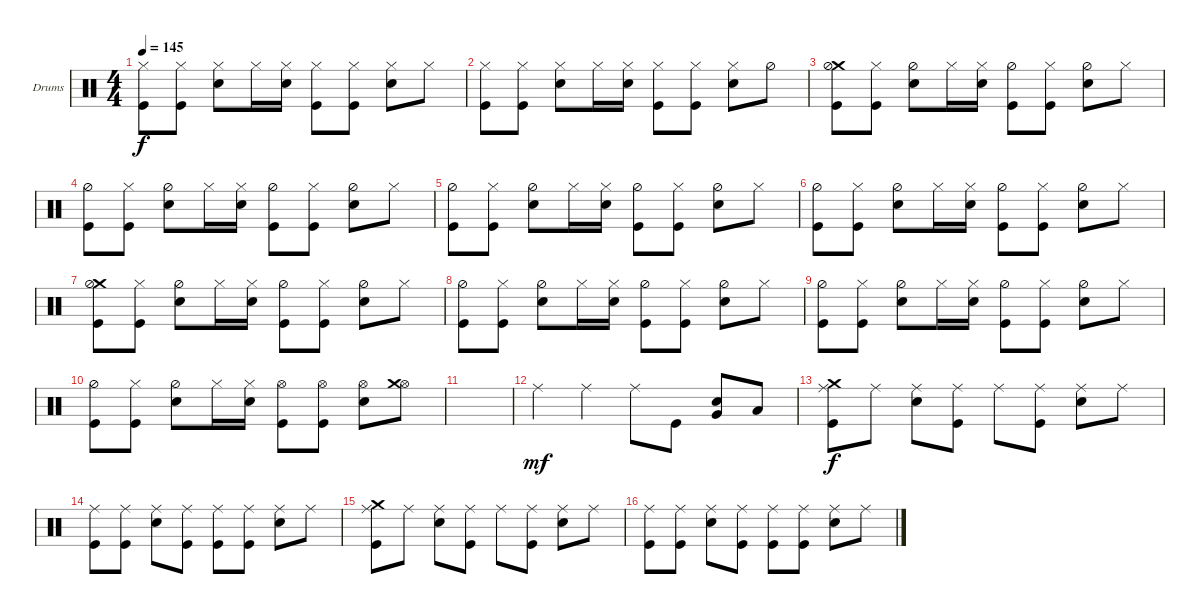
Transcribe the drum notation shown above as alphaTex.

\defaultSystemsLayout 4
\bracketExtendMode groupsimilarinstruments
\firstSystemTrackNameOrientation horizontal
\otherSystemsTrackNameOrientation horizontal
\track ("Nikola" "Drums") {instrument percussion}
\staff {score}
\articulation defaults
\ts (4 4)
\tempo 145
\clef neutral
\ks c
("Kick (hit)" "Hi-Hat (closed)").8{dy f} ("Kick (hit)" "Hi-Hat (closed)").8 ("Snare (hit) 2" "Hi-Hat (closed)").8 "Hi-Hat (closed)".16 ("Snare (hit) 2" "Hi-Hat (closed)").16 ("Kick (hit)" "Hi-Hat (closed)").8 ("Kick (hit)" "Hi-Hat (closed)").8 ("Snare (hit) 2" "Hi-Hat (closed)").8 "Hi-Hat (closed)".8 |
("Kick (hit)" "Hi-Hat (closed)").8 ("Kick (hit)" "Hi-Hat (closed)").8 ("Snare (hit) 2" "Hi-Hat (closed)").8 "Hi-Hat (closed)".16 ("Snare (hit) 2" "Hi-Hat (closed)").16 ("Kick (hit)" "Hi-Hat (closed)").8 ("Kick (hit)" "Hi-Hat (closed)").8 ("Snare (hit) 2" "Hi-Hat (closed)").8 "Hi-Hat (half)".8 |
("Kick (hit)" "Crash medium (hit)" "Hi-Hat (half)").8 ("Kick (hit)" "Hi-Hat (closed)").8 ("Snare (hit) 2" "Hi-Hat (half)").8 "Hi-Hat (closed)".16 ("Snare (hit) 2" "Hi-Hat (closed)").16 ("Kick (hit)" "Hi-Hat (half)").8 ("Kick (hit)" "Hi-Hat (closed)").8 ("Snare (hit) 2" "Hi-Hat (half)").8 "Hi-Hat (closed)".8 |
("Kick (hit)" "Hi-Hat (half)").8 ("Kick (hit)" "Hi-Hat (closed)").8 ("Snare (hit) 2" "Hi-Hat (half)").8 "Hi-Hat (closed)".16 ("Snare (hit) 2" "Hi-Hat (closed)").16 ("Kick (hit)" "Hi-Hat (half)").8 ("Kick (hit)" "Hi-Hat (closed)").8 ("Snare (hit) 2" "Hi-Hat (half)").8 "Hi-Hat (closed)".8 |
("Kick (hit)" "Hi-Hat (half)").8 ("Kick (hit)" "Hi-Hat (closed)").8 ("Snare (hit) 2" "Hi-Hat (half)").8 "Hi-Hat (closed)".16 ("Snare (hit) 2" "Hi-Hat (closed)").16 ("Kick (hit)" "Hi-Hat (half)").8 ("Kick (hit)" "Hi-Hat (closed)").8 ("Snare (hit) 2" "Hi-Hat (half)").8 "Hi-Hat (closed)".8 |
("Kick (hit)" "Hi-Hat (half)").8 ("Kick (hit)" "Hi-Hat (closed)").8 ("Snare (hit) 2" "Hi-Hat (half)").8 "Hi-Hat (closed)".16 ("Snare (hit) 2" "Hi-Hat (closed)").16 ("Kick (hit)" "Hi-Hat (half)").8 ("Kick (hit)" "Hi-Hat (closed)").8 ("Snare (hit) 2" "Hi-Hat (half)").8 "Hi-Hat (closed)".8 |
("Kick (hit)" "Crash medium (hit)" "Hi-Hat (half)").8 ("Kick (hit)" "Hi-Hat (closed)").8 ("Snare (hit) 2" "Hi-Hat (half)").8 "Hi-Hat (closed)".16 ("Snare (hit) 2" "Hi-Hat (closed)").16 ("Kick (hit)" "Hi-Hat (half)").8 ("Kick (hit)" "Hi-Hat (closed)").8 ("Snare (hit) 2" "Hi-Hat (half)").8 "Hi-Hat (closed)".8 |
("Kick (hit)" "Hi-Hat (half)").8 ("Kick (hit)" "Hi-Hat (closed)").8 ("Snare (hit) 2" "Hi-Hat (half)").8 "Hi-Hat (closed)".16 ("Snare (hit) 2" "Hi-Hat (closed)").16 ("Kick (hit)" "Hi-Hat (half)").8 ("Kick (hit)" "Hi-Hat (closed)").8 ("Snare (hit) 2" "Hi-Hat (half)").8 "Hi-Hat (closed)".8 |
("Kick (hit)" "Hi-Hat (half)").8 ("Kick (hit)" "Hi-Hat (closed)").8 ("Snare (hit) 2" "Hi-Hat (half)").8 "Hi-Hat (closed)".16 ("Snare (hit) 2" "Hi-Hat (closed)").16 ("Kick (hit)" "Hi-Hat (half)").8 ("Kick (hit)" "Hi-Hat (closed)").8 ("Snare (hit) 2" "Hi-Hat (half)").8 "Hi-Hat (closed)".8 |
("Kick (hit)" "Hi-Hat (half)").8 ("Kick (hit)" "Hi-Hat (closed)").8 ("Snare (hit) 2" "Hi-Hat (half)").8 "Hi-Hat (closed)".16 ("Snare (hit) 2" "Hi-Hat (closed)").16 ("Kick (hit)" "Hi-Hat (open)").8 ("Kick (hit)" "Hi-Hat (open)").8 ("Snare (hit) 2" "Hi-Hat (open)").8 ("Hi-Hat (open)" "Crash medium (hit)").8 |
|
"Ride (middle)".4{dy mf} "Ride (middle)".4 "Ride (middle)".8 "Kick (hit)".8 ("Snare (hit) 2" "Very Low Tom (hit)").8 "Low Tom (hit)".8 |
("Kick (hit)" "Ride (middle)" "Crash medium (hit)").8{dy f} "Ride (middle)".8 ("Snare (hit) 2" "Ride (middle)").8 ("Kick (hit)" "Ride (middle)").8 "Ride (middle)".8 ("Kick (hit)" "Ride (middle)").8 ("Snare (hit) 2" "Ride (middle)").8 "Ride (middle)".8 |
("Kick (hit)" "Ride (middle)").8 ("Kick (hit)" "Ride (middle)").8 ("Snare (hit) 2" "Ride (middle)").8 ("Kick (hit)" "Ride (middle)").8 ("Kick (hit)" "Ride (middle)").8 ("Kick (hit)" "Ride (middle)").8 ("Snare (hit) 2" "Ride (middle)").8 "Ride (middle)".8 |
("Crash medium (hit)" "Kick (hit)" "Ride (middle)").8 "Ride (middle)".8 ("Snare (hit) 2" "Ride (middle)").8 ("Kick (hit)" "Ride (middle)").8 "Ride (middle)".8 ("Kick (hit)" "Ride (middle)").8 ("Snare (hit) 2" "Ride (middle)").8 "Ride (middle)".8 |
("Kick (hit)" "Ride (middle)").8 ("Kick (hit)" "Ride (middle)").8 ("Snare (hit) 2" "Ride (middle)").8 ("Kick (hit)" "Ride (middle)").8 ("Kick (hit)" "Ride (middle)").8 ("Kick (hit)" "Ride (middle)").8 ("Snare (hit) 2" "Ride (middle)").8 "Ride (middle)".8
